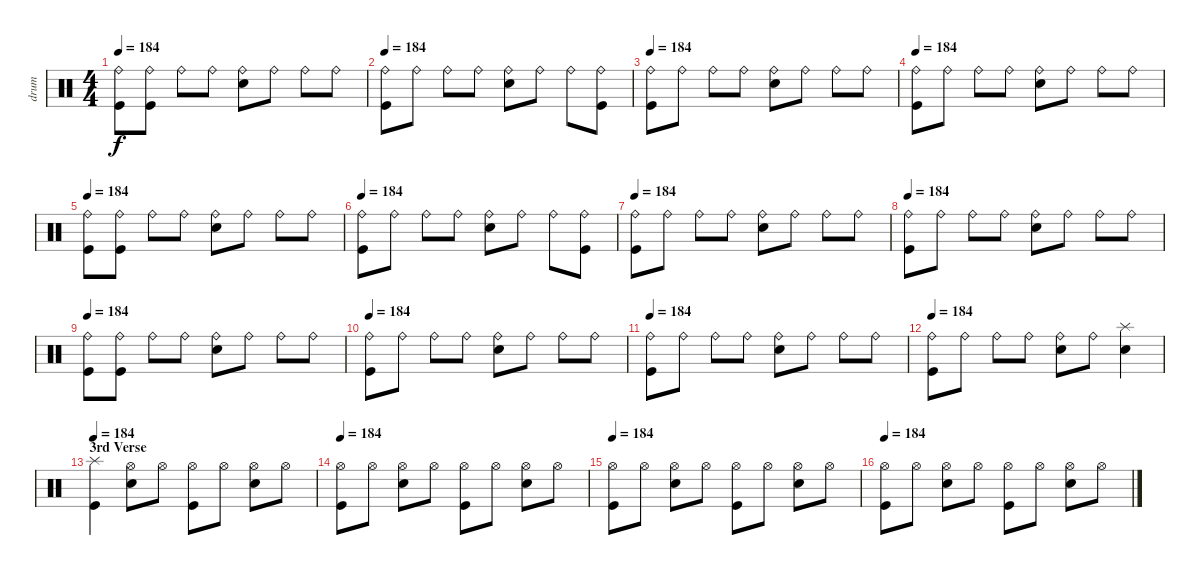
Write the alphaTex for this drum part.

\track ("drum" "drum") {instrument percussion}
\staff {score}
\articulation defaults
\ts (4 4)
\tempo 184
\clef neutral
\ks c
("Kick (hit)" "Ride (bell)").8{dy f} ("Kick (hit)" "Ride (bell)").8 "Ride (bell)".8 "Ride (bell)".8 ("Electric Snare (hit)" "Ride (bell)").8 "Ride (bell)".8 "Ride (bell)".8 "Ride (bell)".8 |
\tempo 184
("Kick (hit)" "Ride (bell)").8 "Ride (bell)".8 "Ride (bell)".8 "Ride (bell)".8 ("Electric Snare (hit)" "Ride (bell)").8 "Ride (bell)".8 "Ride (bell)".8 ("Kick (hit)" "Ride (bell)").8 |
\tempo 184
("Kick (hit)" "Ride (bell)").8 "Ride (bell)".8 "Ride (bell)".8 "Ride (bell)".8 ("Electric Snare (hit)" "Ride (bell)").8 "Ride (bell)".8 "Ride (bell)".8 "Ride (bell)".8 |
\tempo 184
("Kick (hit)" "Ride (bell)").8 "Ride (bell)".8 "Ride (bell)".8 "Ride (bell)".8 ("Electric Snare (hit)" "Ride (bell)").8 "Ride (bell)".8 "Ride (bell)".8 "Ride (bell)".8 |
\tempo 184
("Kick (hit)" "Ride (bell)").8 ("Kick (hit)" "Ride (bell)").8 "Ride (bell)".8 "Ride (bell)".8 ("Electric Snare (hit)" "Ride (bell)").8 "Ride (bell)".8 "Ride (bell)".8 "Ride (bell)".8 |
\tempo 184
("Kick (hit)" "Ride (bell)").8 "Ride (bell)".8 "Ride (bell)".8 "Ride (bell)".8 ("Electric Snare (hit)" "Ride (bell)").8 "Ride (bell)".8 "Ride (bell)".8 ("Kick (hit)" "Ride (bell)").8 |
\tempo 184
("Kick (hit)" "Ride (bell)").8 "Ride (bell)".8 "Ride (bell)".8 "Ride (bell)".8 ("Electric Snare (hit)" "Ride (bell)").8 "Ride (bell)".8 "Ride (bell)".8 "Ride (bell)".8 |
\tempo 184
("Kick (hit)" "Ride (bell)").8 "Ride (bell)".8 "Ride (bell)".8 "Ride (bell)".8 ("Electric Snare (hit)" "Ride (bell)").8 "Ride (bell)".8 "Ride (bell)".8 "Ride (bell)".8 |
\tempo 184
("Kick (hit)" "Ride (bell)").8 ("Kick (hit)" "Ride (bell)").8 "Ride (bell)".8 "Ride (bell)".8 ("Electric Snare (hit)" "Ride (bell)").8 "Ride (bell)".8 "Ride (bell)".8 "Ride (bell)".8 |
\tempo 184
("Kick (hit)" "Ride (bell)").8 "Ride (bell)".8 "Ride (bell)".8 "Ride (bell)".8 ("Electric Snare (hit)" "Ride (bell)").8 "Ride (bell)".8 "Ride (bell)".8 "Ride (bell)".8 |
\tempo 184
("Kick (hit)" "Ride (bell)").8 "Ride (bell)".8 "Ride (bell)".8 "Ride (bell)".8 ("Electric Snare (hit)" "Ride (bell)").8 "Ride (bell)".8 "Ride (bell)".8 "Ride (bell)".8 |
\tempo 184
("Kick (hit)" "Ride (bell)").8 "Ride (bell)".8 "Ride (bell)".8 "Ride (bell)".8 ("Electric Snare (hit)" "Ride (bell)").8 "Ride (bell)".8 ("Electric Snare (hit)" "Splash (hit)").4 |
\section ("" "3rd Verse")
\tempo 184
("Kick (hit)" "Splash (hit)").4 ("Electric Snare (hit)" "Hi-Hat (open)").8 "Hi-Hat (open)".8 ("Kick (hit)" "Hi-Hat (open)").8 "Hi-Hat (open)".8 ("Electric Snare (hit)" "Hi-Hat (open)").8 "Hi-Hat (open)".8 |
\tempo 184
("Kick (hit)" "Hi-Hat (open)").8 "Hi-Hat (open)".8 ("Electric Snare (hit)" "Hi-Hat (open)").8 "Hi-Hat (open)".8 ("Kick (hit)" "Hi-Hat (open)").8 "Hi-Hat (open)".8 ("Electric Snare (hit)" "Hi-Hat (open)").8 "Hi-Hat (open)".8 |
\tempo 184
("Kick (hit)" "Hi-Hat (open)").8 "Hi-Hat (open)".8 ("Electric Snare (hit)" "Hi-Hat (open)").8 "Hi-Hat (open)".8 ("Kick (hit)" "Hi-Hat (open)").8 "Hi-Hat (open)".8 ("Electric Snare (hit)" "Hi-Hat (open)").8 "Hi-Hat (open)".8 |
\tempo 184
("Kick (hit)" "Hi-Hat (open)").8 "Hi-Hat (open)".8 ("Electric Snare (hit)" "Hi-Hat (open)").8 "Hi-Hat (open)".8 ("Kick (hit)" "Hi-Hat (open)").8 "Hi-Hat (open)".8 ("Electric Snare (hit)" "Hi-Hat (open)").8 "Hi-Hat (open)".8
